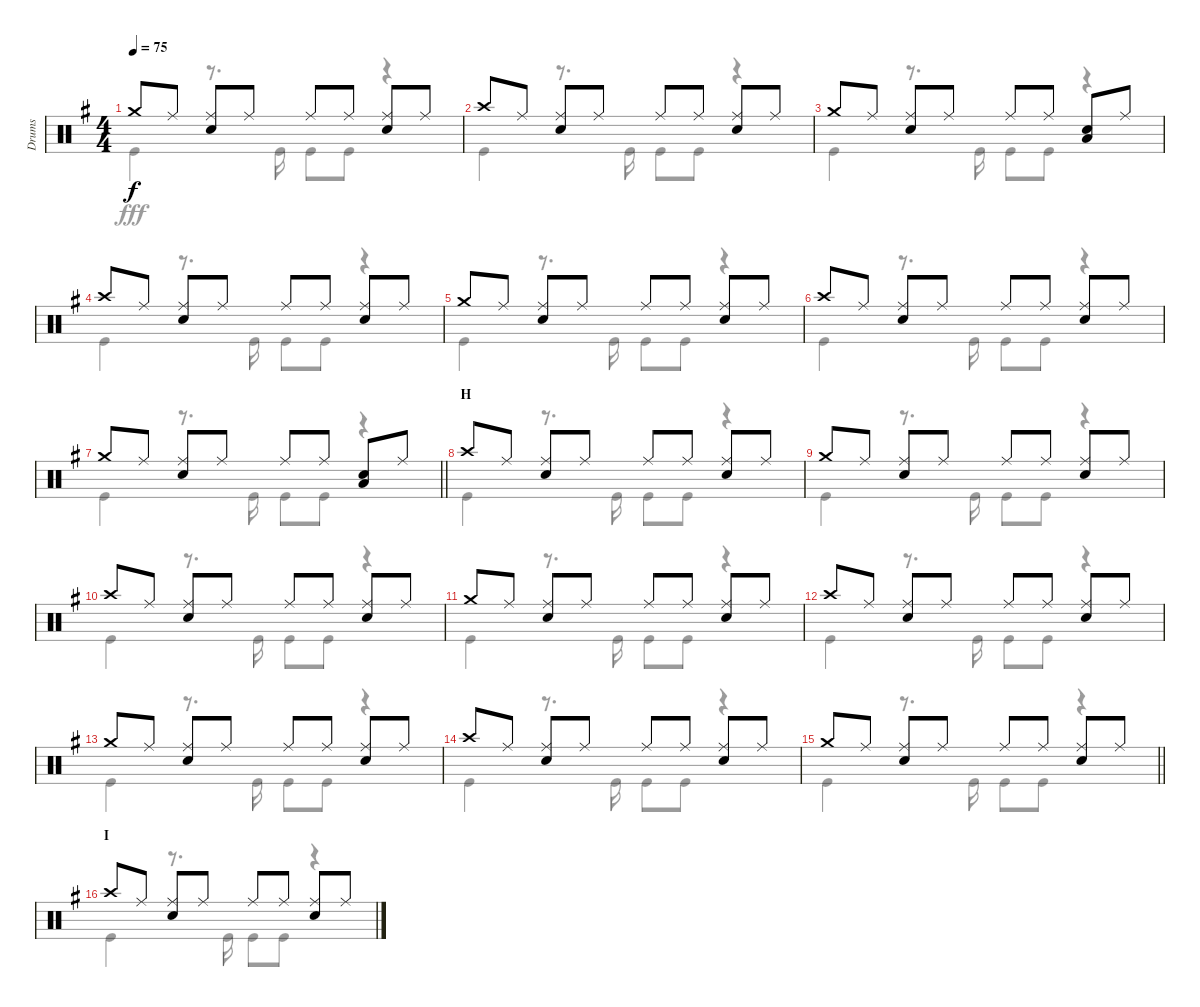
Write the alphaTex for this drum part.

\track ("Drums" "Drums") {instrument percussion}
\staff {score}
\articulation defaults
\voice
\ts (4 4)
\tempo 75
\clef neutral
\ks g "Crash medium (hit)".8{dy f} "Ride (middle)".8
("Ride (middle)" "Snare (hit) 2").8 "Ride (middle)".8 "Ride (middle)".8 "Ride (middle)".8 ("Ride (middle)" "Snare (hit) 2").8 "Ride (middle)".8 |
"Crash high (hit)".8 "Ride (middle)".8 ("Ride (middle)" "Snare (hit) 2").8 "Ride (middle)".8 "Ride (middle)".8 "Ride (middle)".8 ("Ride (middle)" "Snare (hit) 2").8 "Ride (middle)".8 |
"Crash medium (hit)".8 "Ride (middle)".8 ("Ride (middle)" "Snare (hit) 2").8 "Ride (middle)".8 "Ride (middle)".8 "Ride (middle)".8 ("Snare (hit) 2" "Low Tom (hit)").8 "Ride (middle)".8 |
"Crash high (hit)".8 "Ride (middle)".8 ("Ride (middle)" "Snare (hit) 2").8 "Ride (middle)".8 "Ride (middle)".8 "Ride (middle)".8 ("Ride (middle)" "Snare (hit) 2").8 "Ride (middle)".8 |
"Crash medium (hit)".8 "Ride (middle)".8 ("Ride (middle)" "Snare (hit) 2").8 "Ride (middle)".8 "Ride (middle)".8 "Ride (middle)".8 ("Ride (middle)" "Snare (hit) 2").8 "Ride (middle)".8 |
"Crash high (hit)".8 "Ride (middle)".8 ("Ride (middle)" "Snare (hit) 2").8 "Ride (middle)".8 "Ride (middle)".8 "Ride (middle)".8 ("Ride (middle)" "Snare (hit) 2").8 "Ride (middle)".8 |
\barLineRight lightlight "Crash medium (hit)".8 "Ride (middle)".8
("Ride (middle)" "Snare (hit) 2").8 "Ride (middle)".8 "Ride (middle)".8 "Ride (middle)".8 ("Snare (hit) 2" "Low Tom (hit)").8 "Ride (middle)".8 |
\section ("" "H")
"Crash high (hit)".8 "Ride (middle)".8 ("Ride (middle)" "Snare (hit) 2").8 "Ride (middle)".8 "Ride (middle)".8 "Ride (middle)".8 ("Ride (middle)" "Snare (hit) 2").8 "Ride (middle)".8 |
"Crash medium (hit)".8 "Ride (middle)".8 ("Ride (middle)" "Snare (hit) 2").8 "Ride (middle)".8 "Ride (middle)".8 "Ride (middle)".8 ("Ride (middle)" "Snare (hit) 2").8 "Ride (middle)".8 |
"Crash high (hit)".8 "Ride (middle)".8 ("Ride (middle)" "Snare (hit) 2").8 "Ride (middle)".8 "Ride (middle)".8 "Ride (middle)".8 ("Ride (middle)" "Snare (hit) 2").8 "Ride (middle)".8 |
"Crash medium (hit)".8 "Ride (middle)".8 ("Ride (middle)" "Snare (hit) 2").8 "Ride (middle)".8 "Ride (middle)".8 "Ride (middle)".8 ("Ride (middle)" "Snare (hit) 2").8 "Ride (middle)".8 |
"Crash high (hit)".8 "Ride (middle)".8 ("Ride (middle)" "Snare (hit) 2").8 "Ride (middle)".8 "Ride (middle)".8 "Ride (middle)".8 ("Ride (middle)" "Snare (hit) 2").8 "Ride (middle)".8 |
"Crash medium (hit)".8 "Ride (middle)".8 ("Ride (middle)" "Snare (hit) 2").8 "Ride (middle)".8 "Ride (middle)".8 "Ride (middle)".8 ("Ride (middle)" "Snare (hit) 2").8 "Ride (middle)".8 |
"Crash high (hit)".8 "Ride (middle)".8 ("Ride (middle)" "Snare (hit) 2").8 "Ride (middle)".8 "Ride (middle)".8 "Ride (middle)".8 ("Ride (middle)" "Snare (hit) 2").8 "Ride (middle)".8 |
\barLineRight lightlight "Crash medium (hit)".8 "Ride (middle)".8
("Ride (middle)" "Snare (hit) 2").8 "Ride (middle)".8 "Ride (middle)".8 "Ride (middle)".8 ("Ride (middle)" "Snare (hit) 2").8 "Ride (middle)".8 |
\section ("" "I")
"Crash high (hit)".8 "Ride (middle)".8 ("Ride (middle)" "Snare (hit) 2").8 "Ride (middle)".8 "Ride (middle)".8 "Ride (middle)".8 ("Ride (middle)" "Snare (hit) 2").8 "Ride (middle)".8
\voice
\clef neutral
\ottava regular
\simile none
\ks g "Kick (hit)".4{dy fff}
r.8{d} "Kick (hit)".16 "Kick (hit)".8 "Kick (hit)".8 r.4 |
"Kick (hit)".4 r.8{d} "Kick (hit)".16 "Kick (hit)".8 "Kick (hit)".8 r.4 |
"Kick (hit)".4 r.8{d} "Kick (hit)".16 "Kick (hit)".8 "Kick (hit)".8 r.4 |
"Kick (hit)".4 r.8{d} "Kick (hit)".16 "Kick (hit)".8 "Kick (hit)".8 r.4 |
"Kick (hit)".4 r.8{d} "Kick (hit)".16 "Kick (hit)".8 "Kick (hit)".8 r.4 |
"Kick (hit)".4 r.8{d} "Kick (hit)".16 "Kick (hit)".8 "Kick (hit)".8 r.4 |
\barLineRight lightlight "Kick (hit)".4
r.8{d} "Kick (hit)".16 "Kick (hit)".8 "Kick (hit)".8 r.4 |
"Kick (hit)".4 r.8{d} "Kick (hit)".16 "Kick (hit)".8 "Kick (hit)".8 r.4 |
"Kick (hit)".4 r.8{d} "Kick (hit)".16 "Kick (hit)".8 "Kick (hit)".8 r.4 |
"Kick (hit)".4 r.8{d} "Kick (hit)".16 "Kick (hit)".8 "Kick (hit)".8 r.4 |
"Kick (hit)".4 r.8{d} "Kick (hit)".16 "Kick (hit)".8 "Kick (hit)".8 r.4 |
"Kick (hit)".4 r.8{d} "Kick (hit)".16 "Kick (hit)".8 "Kick (hit)".8 r.4 |
"Kick (hit)".4 r.8{d} "Kick (hit)".16 "Kick (hit)".8 "Kick (hit)".8 r.4 |
"Kick (hit)".4 r.8{d} "Kick (hit)".16 "Kick (hit)".8 "Kick (hit)".8 r.4 |
\barLineRight lightlight "Kick (hit)".4
r.8{d} "Kick (hit)".16 "Kick (hit)".8 "Kick (hit)".8 r.4 |
"Kick (hit)".4 r.8{d} "Kick (hit)".16 "Kick (hit)".8 "Kick (hit)".8 r.4
